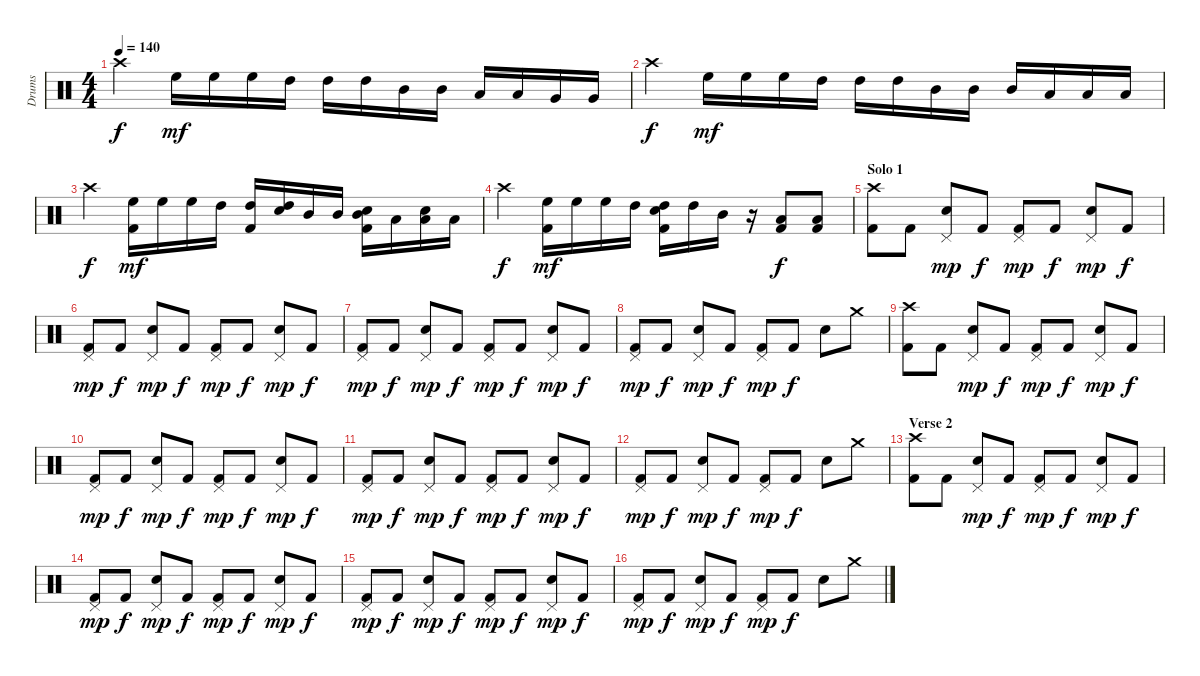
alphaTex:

\track ("Drums" "Drums") {instrument percussion}
\staff {score}
\articulation defaults
\ts (4 4)
\tempo 140
\clef neutral
\ks c "Crash high (hit)".4{dy f} "High Floor Tom (hit)".16{dy mf} "High Floor Tom (hit)".16 "High Floor Tom (hit)".16 "High Tom (hit)".16 "High Tom (hit)".16 "High Tom (hit)".16 "Mid Tom (hit)".16 "Mid Tom (hit)".16 "Low Tom (hit)".16 "Low Tom (hit)".16 "Very Low Tom (hit)".16 "Very Low Tom (hit)".16
|
"Crash high (hit)".4{dy f} "High Floor Tom (hit)".16{dy mf} "High Floor Tom (hit)".16 "High Floor Tom (hit)".16 "High Tom (hit)".16 "High Tom (hit)".16 "High Tom (hit)".16 "Mid Tom (hit)".16 "Mid Tom (hit)".16 "Mid Tom (hit)".16 "Low Tom (hit)".16 "Low Tom (hit)".16 "Low Tom (hit)".16 |
"Crash high (hit)".4{dy f} ("High Floor Tom (hit)" "Kick (hit) 2").16{dy mf} "High Floor Tom (hit)".16 "High Floor Tom (hit)".16 "High Tom (hit)".16 ("High Tom (hit)" "Kick (hit) 2").16 ("Snare (hit) 2" "High Tom (hit)").16 "Mid Tom (hit)".16 "Mid Tom (hit)".16 ("Snare (hit) 2" "Mid Tom (hit)" "Kick (hit) 2").16 "Low Tom (hit)".16 ("Snare (hit) 2" "Low Tom (hit)").16 "Low Tom (hit)".16 |
"Crash high (hit)".4{dy f} ("High Floor Tom (hit)" "Kick (hit) 2").16{dy mf} "High Floor Tom (hit)".16 "High Floor Tom (hit)".16 "High Tom (hit)".16 ("Snare (hit) 2" "High Tom (hit)" "Kick (hit) 2").16 "High Tom (hit)".16 "Mid Tom (hit)".16 r.16 ("Low Tom (hit)" "Kick (hit) 2").8{dy f} ("Low Tom (hit)" "Kick (hit) 2").8 |
\section ("" "Solo 1")
("Crash high (hit)" "Kick (hit) 2").8 "Kick (hit) 2".8 ("Pedal Hi-Hat (hit)" "Snare (hit) 2").8{dy mp} "Kick (hit) 2".8{dy f} ("Pedal Hi-Hat (hit)" "Kick (hit) 2").8{dy mp} "Kick (hit) 2".8{dy f} ("Pedal Hi-Hat (hit)" "Snare (hit) 2").8{dy mp} "Kick (hit) 2".8{dy f} |
("Pedal Hi-Hat (hit)" "Kick (hit) 2").8{dy mp} "Kick (hit) 2".8{dy f} ("Pedal Hi-Hat (hit)" "Snare (hit) 2").8{dy mp} "Kick (hit) 2".8{dy f} ("Pedal Hi-Hat (hit)" "Kick (hit) 2").8{dy mp} "Kick (hit) 2".8{dy f} ("Pedal Hi-Hat (hit)" "Snare (hit) 2").8{dy mp} "Kick (hit) 2".8{dy f} |
("Pedal Hi-Hat (hit)" "Kick (hit) 2").8{dy mp} "Kick (hit) 2".8{dy f} ("Pedal Hi-Hat (hit)" "Snare (hit) 2").8{dy mp} "Kick (hit) 2".8{dy f} ("Pedal Hi-Hat (hit)" "Kick (hit) 2").8{dy mp} "Kick (hit) 2".8{dy f} ("Pedal Hi-Hat (hit)" "Snare (hit) 2").8{dy mp} "Kick (hit) 2".8{dy f} |
("Pedal Hi-Hat (hit)" "Kick (hit) 2").8{dy mp} "Kick (hit) 2".8{dy f} ("Pedal Hi-Hat (hit)" "Snare (hit) 2").8{dy mp} "Kick (hit) 2".8{dy f} ("Pedal Hi-Hat (hit)" "Kick (hit) 2").8{dy mp} "Kick (hit) 2".8{dy f} "Snare (hit) 2".8 "Crash medium (hit)".8 |
("Crash high (hit)" "Kick (hit) 2").8 "Kick (hit) 2".8 ("Pedal Hi-Hat (hit)" "Snare (hit) 2").8{dy mp} "Kick (hit) 2".8{dy f} ("Pedal Hi-Hat (hit)" "Kick (hit) 2").8{dy mp} "Kick (hit) 2".8{dy f} ("Pedal Hi-Hat (hit)" "Snare (hit) 2").8{dy mp} "Kick (hit) 2".8{dy f} |
("Pedal Hi-Hat (hit)" "Kick (hit) 2").8{dy mp} "Kick (hit) 2".8{dy f} ("Pedal Hi-Hat (hit)" "Snare (hit) 2").8{dy mp} "Kick (hit) 2".8{dy f} ("Pedal Hi-Hat (hit)" "Kick (hit) 2").8{dy mp} "Kick (hit) 2".8{dy f} ("Pedal Hi-Hat (hit)" "Snare (hit) 2").8{dy mp} "Kick (hit) 2".8{dy f} |
("Pedal Hi-Hat (hit)" "Kick (hit) 2").8{dy mp} "Kick (hit) 2".8{dy f} ("Pedal Hi-Hat (hit)" "Snare (hit) 2").8{dy mp} "Kick (hit) 2".8{dy f} ("Pedal Hi-Hat (hit)" "Kick (hit) 2").8{dy mp} "Kick (hit) 2".8{dy f} ("Pedal Hi-Hat (hit)" "Snare (hit) 2").8{dy mp} "Kick (hit) 2".8{dy f} |
("Pedal Hi-Hat (hit)" "Kick (hit) 2").8{dy mp} "Kick (hit) 2".8{dy f} ("Pedal Hi-Hat (hit)" "Snare (hit) 2").8{dy mp} "Kick (hit) 2".8{dy f} ("Pedal Hi-Hat (hit)" "Kick (hit) 2").8{dy mp} "Kick (hit) 2".8{dy f} "Snare (hit) 2".8 "Crash medium (hit)".8 |
\section ("" "Verse 2")
("Crash high (hit)" "Kick (hit) 2").8 "Kick (hit) 2".8 ("Pedal Hi-Hat (hit)" "Snare (hit) 2").8{dy mp} "Kick (hit) 2".8{dy f} ("Pedal Hi-Hat (hit)" "Kick (hit) 2").8{dy mp} "Kick (hit) 2".8{dy f} ("Pedal Hi-Hat (hit)" "Snare (hit) 2").8{dy mp} "Kick (hit) 2".8{dy f} |
("Pedal Hi-Hat (hit)" "Kick (hit) 2").8{dy mp} "Kick (hit) 2".8{dy f} ("Pedal Hi-Hat (hit)" "Snare (hit) 2").8{dy mp} "Kick (hit) 2".8{dy f} ("Pedal Hi-Hat (hit)" "Kick (hit) 2").8{dy mp} "Kick (hit) 2".8{dy f} ("Pedal Hi-Hat (hit)" "Snare (hit) 2").8{dy mp} "Kick (hit) 2".8{dy f} |
("Pedal Hi-Hat (hit)" "Kick (hit) 2").8{dy mp} "Kick (hit) 2".8{dy f} ("Pedal Hi-Hat (hit)" "Snare (hit) 2").8{dy mp} "Kick (hit) 2".8{dy f} ("Pedal Hi-Hat (hit)" "Kick (hit) 2").8{dy mp} "Kick (hit) 2".8{dy f} ("Pedal Hi-Hat (hit)" "Snare (hit) 2").8{dy mp} "Kick (hit) 2".8{dy f} |
("Pedal Hi-Hat (hit)" "Kick (hit) 2").8{dy mp} "Kick (hit) 2".8{dy f} ("Pedal Hi-Hat (hit)" "Snare (hit) 2").8{dy mp} "Kick (hit) 2".8{dy f} ("Pedal Hi-Hat (hit)" "Kick (hit) 2").8{dy mp} "Kick (hit) 2".8{dy f} "Snare (hit) 2".8 "Crash medium (hit)".8
